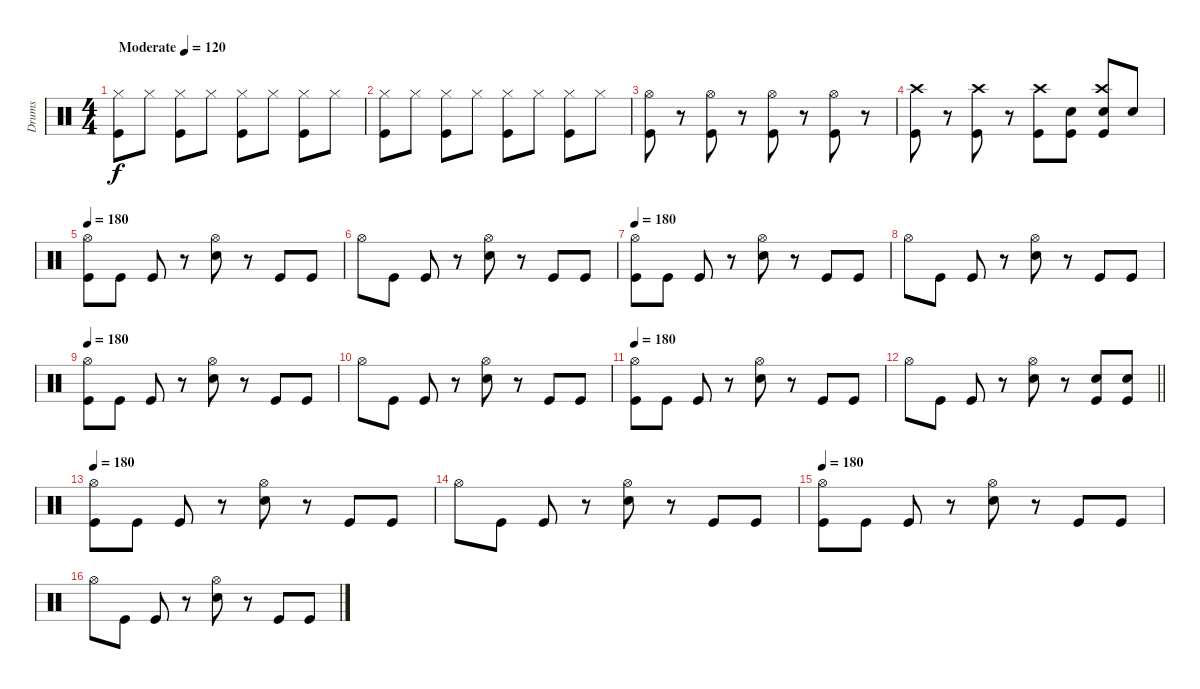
\track ("Drums" "Drums") {instrument percussion}
\staff {score}
\articulation defaults
\ts (4 4)
\tempo (120 "Moderate")
\clef neutral
\ks c
("Hi-Hat (closed)" "Kick (hit)").8{dy f} "Hi-Hat (closed)".8 ("Hi-Hat (closed)" "Kick (hit)").8 "Hi-Hat (closed)".8 ("Hi-Hat (closed)" "Kick (hit)").8 "Hi-Hat (closed)".8 ("Hi-Hat (closed)" "Kick (hit)").8 "Hi-Hat (closed)".8 |
("Hi-Hat (closed)" "Kick (hit)").8 "Hi-Hat (closed)".8 ("Hi-Hat (closed)" "Kick (hit)").8 "Hi-Hat (closed)".8 ("Hi-Hat (closed)" "Kick (hit)").8 "Hi-Hat (closed)".8 ("Hi-Hat (closed)" "Kick (hit)").8 "Hi-Hat (closed)".8 |
("Hi-Hat (open)" "Kick (hit)").8 r.8 ("Hi-Hat (open)" "Kick (hit)").8 r.8 ("Hi-Hat (open)" "Kick (hit)").8 r.8 ("Hi-Hat (open)" "Kick (hit)").8 r.8 |
("Crash high (hit)" "Kick (hit)").8 r.8 ("Crash high (hit)" "Kick (hit)").8 r.8 ("Crash high (hit)" "Kick (hit)").8 ("Electric Snare (hit)" "Kick (hit)").8 ("Crash high (hit)" "Electric Snare (hit)" "Kick (hit)").8 "Electric Snare (hit)".8 |
\tempo 180
("Hi-Hat (open)" "Kick (hit)").8 "Kick (hit)".8 "Kick (hit)".8 r.8 ("Hi-Hat (open)" "Electric Snare (hit)").8 r.8 "Kick (hit)".8 "Kick (hit)".8 |
"Hi-Hat (open)".8 "Kick (hit)".8 "Kick (hit)".8 r.8 ("Hi-Hat (open)" "Electric Snare (hit)").8 r.8 "Kick (hit)".8 "Kick (hit)".8 |
\tempo 180
("Hi-Hat (open)" "Kick (hit)").8 "Kick (hit)".8 "Kick (hit)".8 r.8 ("Hi-Hat (open)" "Electric Snare (hit)").8 r.8 "Kick (hit)".8 "Kick (hit)".8 |
"Hi-Hat (open)".8 "Kick (hit)".8 "Kick (hit)".8 r.8 ("Hi-Hat (open)" "Electric Snare (hit)").8 r.8 "Kick (hit)".8 "Kick (hit)".8 |
\tempo 180
("Hi-Hat (open)" "Kick (hit)").8 "Kick (hit)".8 "Kick (hit)".8 r.8 ("Hi-Hat (open)" "Electric Snare (hit)").8 r.8 "Kick (hit)".8 "Kick (hit)".8 |
"Hi-Hat (open)".8 "Kick (hit)".8 "Kick (hit)".8 r.8 ("Hi-Hat (open)" "Electric Snare (hit)").8 r.8 "Kick (hit)".8 "Kick (hit)".8 |
\tempo 180
("Hi-Hat (open)" "Kick (hit)").8 "Kick (hit)".8 "Kick (hit)".8 r.8 ("Hi-Hat (open)" "Electric Snare (hit)").8 r.8 "Kick (hit)".8 "Kick (hit)".8 |
\barLineRight lightlight "Hi-Hat (open)".8 "Kick (hit)".8 "Kick (hit)".8
r.8 ("Hi-Hat (open)" "Electric Snare (hit)").8 r.8 ("Electric Snare (hit)" "Kick (hit)").8 ("Electric Snare (hit)" "Kick (hit)").8 |
\section ("" "")
\tempo 180
("Hi-Hat (open)" "Kick (hit)").8 "Kick (hit)".8 "Kick (hit)".8 r.8 ("Hi-Hat (open)" "Electric Snare (hit)").8 r.8 "Kick (hit)".8 "Kick (hit)".8 |
"Hi-Hat (open)".8 "Kick (hit)".8 "Kick (hit)".8 r.8 ("Hi-Hat (open)" "Electric Snare (hit)").8 r.8 "Kick (hit)".8 "Kick (hit)".8 |
\tempo 180
("Hi-Hat (open)" "Kick (hit)").8 "Kick (hit)".8 "Kick (hit)".8 r.8 ("Hi-Hat (open)" "Electric Snare (hit)").8 r.8 "Kick (hit)".8 "Kick (hit)".8 |
"Hi-Hat (open)".8 "Kick (hit)".8 "Kick (hit)".8 r.8 ("Hi-Hat (open)" "Electric Snare (hit)").8 r.8 "Kick (hit)".8 "Kick (hit)".8
